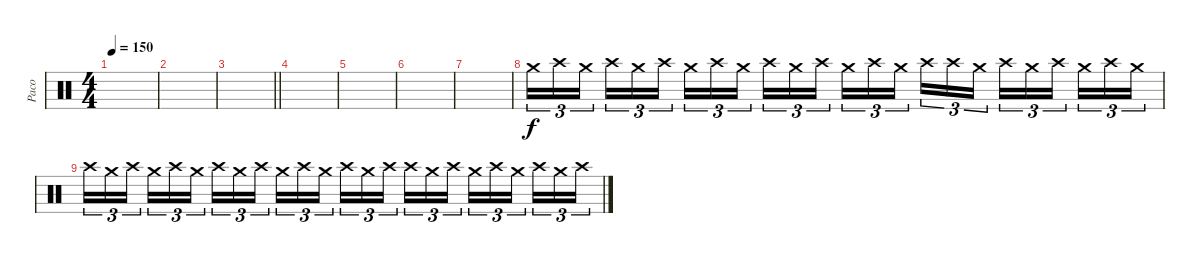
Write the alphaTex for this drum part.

\track ("Paco" "Paco") {instrument percussion}
\staff {score}
\articulation defaults
\ts (4 4)
\tempo 150
\clef neutral
\ks c
|
|
\barLineRight lightlight
|
|
|
|
|
"Crash medium (hit)".16{tu (3 2) volume 13} "Crash high (hit)".16{tu (3 2)} "Crash medium (hit)".16{tu (3 2) beam splitsecondary} "Crash high (hit)".16{tu (3 2)} "Crash medium (hit)".16{tu (3 2)} "Crash high (hit)".16{tu (3 2)} "Crash medium (hit)".16{tu (3 2)} "Crash high (hit)".16{tu (3 2)} "Crash medium (hit)".16{tu (3 2) beam splitsecondary} "Crash high (hit)".16{tu (3 2)} "Crash medium (hit)".16{tu (3 2)} "Crash high (hit)".16{tu (3 2)} "Crash medium (hit)".16{tu (3 2)} "Crash high (hit)".16{tu (3 2)} "Crash medium (hit)".16{tu (3 2) beam splitsecondary} "Crash high (hit)".16{tu (3 2)} "Crash high (hit)".16{tu (3 2)} "Crash medium (hit)".16{tu (3 2)} "Crash high (hit)".16{tu (3 2)} "Crash medium (hit)".16{tu (3 2)} "Crash high (hit)".16{tu (3 2) beam splitsecondary} "Crash medium (hit)".16{tu (3 2)} "Crash high (hit)".16{tu (3 2)} "Crash medium (hit)".16{tu (3 2)} |
"Crash high (hit)".16{tu (3 2)} "Crash medium (hit)".16{tu (3 2)} "Crash high (hit)".16{tu (3 2) beam splitsecondary} "Crash medium (hit)".16{tu (3 2)} "Crash high (hit)".16{tu (3 2)} "Crash medium (hit)".16{tu (3 2)} "Crash high (hit)".16{tu (3 2)} "Crash medium (hit)".16{tu (3 2)} "Crash high (hit)".16{tu (3 2) beam splitsecondary} "Crash medium (hit)".16{tu (3 2)} "Crash high (hit)".16{tu (3 2)} "Crash medium (hit)".16{tu (3 2)} "Crash high (hit)".16{tu (3 2)} "Crash medium (hit)".16{tu (3 2)} "Crash high (hit)".16{tu (3 2) beam splitsecondary} "Crash high (hit)".16{tu (3 2)} "Crash medium (hit)".16{tu (3 2)} "Crash high (hit)".16{tu (3 2)} "Crash medium (hit)".16{tu (3 2)} "Crash high (hit)".16{tu (3 2)} "Crash medium (hit)".16{tu (3 2) beam splitsecondary} "Crash high (hit)".16{tu (3 2)} "Crash medium (hit)".16{tu (3 2)} "Crash high (hit)".16{tu (3 2)}
